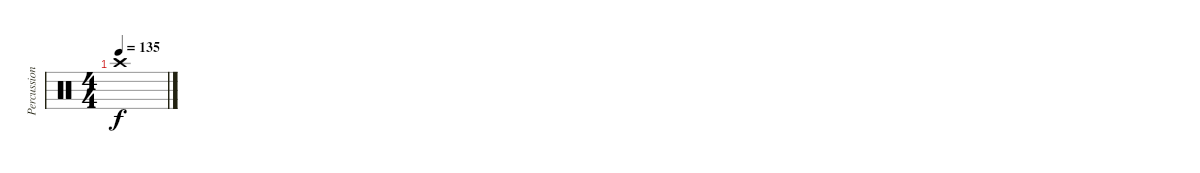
\track ("Percussions" "Percussion") {instrument percussion}
\staff {score}
\articulation defaults
\ts (4 4)
\tempo 135
\clef neutral
\ks c "Crash high (hit)".1{dy f}
